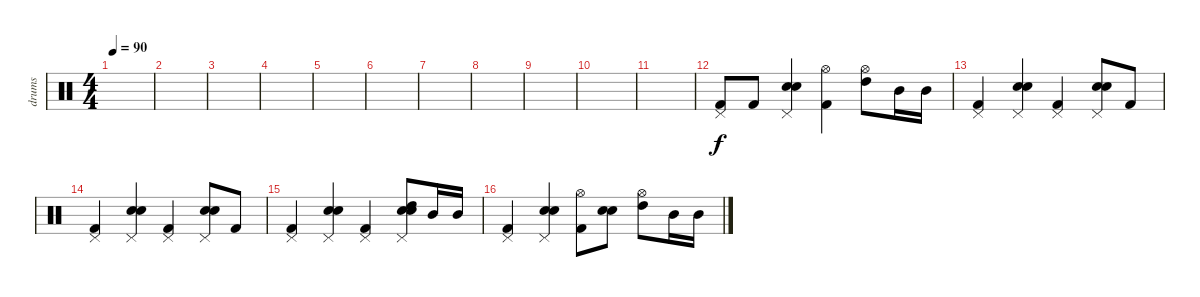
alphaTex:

\track ("drums" "drums") {instrument percussion}
\staff {score}
\articulation defaults
\ts (4 4)
\tempo 90
\clef neutral
\ks c
|
|
|
|
|
|
|
|
|
|
|
("Kick (hit) 2" "Pedal Hi-Hat (hit)").8 "Kick (hit) 2".8 ("Snare (hit) 2" "Electric Snare (hit)" "Pedal Hi-Hat (hit)").4 ("Hi-Hat (open)" "Kick (hit) 2").4 ("Hi-Hat (open)" "High Tom (hit)").8 "Mid Tom (hit)".16 "Mid Tom (hit)".16 |
("Kick (hit) 2" "Pedal Hi-Hat (hit)").4 ("Snare (hit) 2" "Electric Snare (hit)" "Pedal Hi-Hat (hit)").4 ("Kick (hit) 2" "Pedal Hi-Hat (hit)").4 ("Snare (hit) 2" "Electric Snare (hit)" "Pedal Hi-Hat (hit)").8 "Kick (hit) 2".8 |
("Kick (hit) 2" "Pedal Hi-Hat (hit)").4 ("Snare (hit) 2" "Electric Snare (hit)" "Pedal Hi-Hat (hit)").4 ("Kick (hit) 2" "Pedal Hi-Hat (hit)").4 ("Snare (hit) 2" "Electric Snare (hit)" "Pedal Hi-Hat (hit)").8 "Kick (hit) 2".8 |
("Kick (hit) 2" "Pedal Hi-Hat (hit)").4 ("Snare (hit) 2" "Electric Snare (hit)" "Pedal Hi-Hat (hit)").4 ("Kick (hit) 2" "Pedal Hi-Hat (hit)").4 ("Snare (hit) 2" "Electric Snare (hit)" "High Tom (hit)" "Pedal Hi-Hat (hit)").8 "Mid Tom (hit)".16 "Mid Tom (hit)".16 |
("Kick (hit) 2" "Pedal Hi-Hat (hit)").4 ("Snare (hit) 2" "Electric Snare (hit)" "Pedal Hi-Hat (hit)").4 ("Hi-Hat (open)" "Kick (hit) 2").8 ("Snare (hit) 2" "Electric Snare (hit)").8 ("Hi-Hat (open)" "High Tom (hit)").8 "Mid Tom (hit)".16 "Mid Tom (hit)".16
